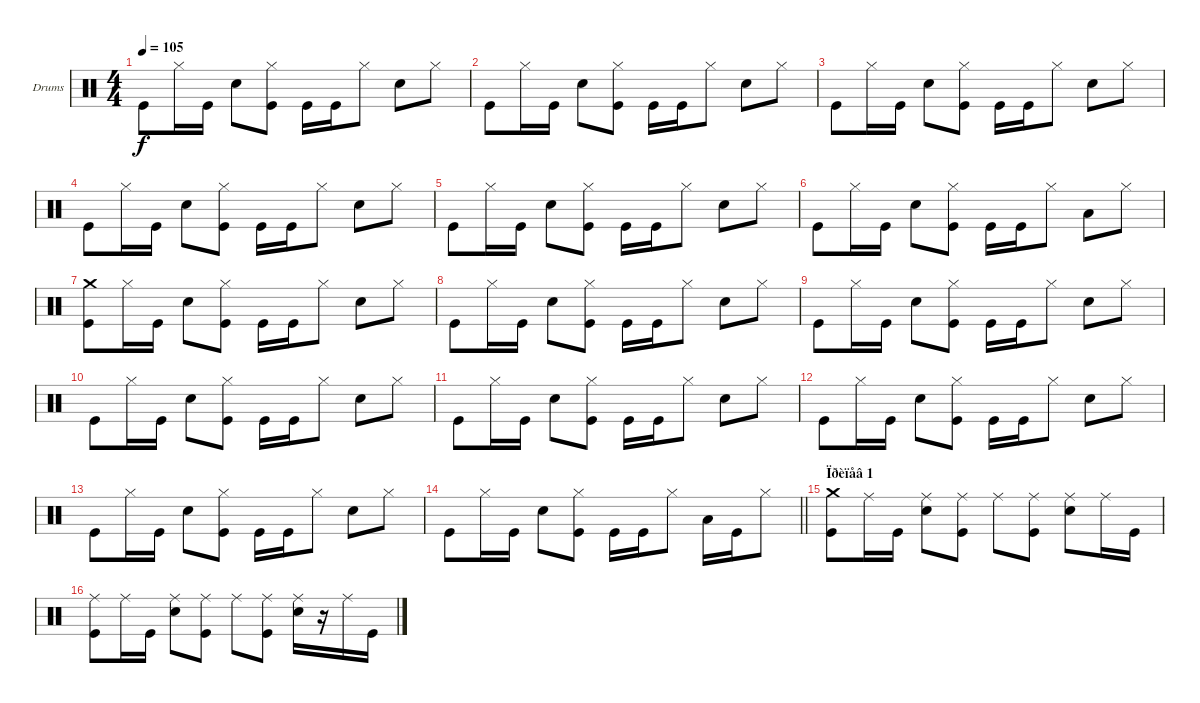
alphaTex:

\bracketExtendMode groupsimilarinstruments
\firstSystemTrackNameOrientation horizontal
\otherSystemsTrackNameOrientation horizontal
\track ("Drumkit" "Drums") {instrument percussion}
\staff {score}
\articulation defaults
\ts (4 4)
\tempo 105
\clef neutral
\ks c "Kick (hit)".8{dy f} "Hi-Hat (closed)".16 "Kick (hit)".16 "Snare (hit) 2".8
("Kick (hit)" "Hi-Hat (closed)").8 "Kick (hit)".16 "Kick (hit)".16 "Hi-Hat (closed)".8 "Snare (hit) 2".8 "Hi-Hat (closed)".8 |
"Kick (hit)".8 "Hi-Hat (closed)".16 "Kick (hit)".16 "Snare (hit) 2".8 ("Kick (hit)" "Hi-Hat (closed)").8 "Kick (hit)".16 "Kick (hit)".16 "Hi-Hat (closed)".8 "Snare (hit) 2".8 "Hi-Hat (closed)".8 |
"Kick (hit)".8 "Hi-Hat (closed)".16 "Kick (hit)".16 "Snare (hit) 2".8 ("Kick (hit)" "Hi-Hat (closed)").8 "Kick (hit)".16 "Kick (hit)".16 "Hi-Hat (closed)".8 "Snare (hit) 2".8 "Hi-Hat (closed)".8 |
"Kick (hit)".8 "Hi-Hat (closed)".16 "Kick (hit)".16 "Snare (hit) 2".8 ("Kick (hit)" "Hi-Hat (closed)").8 "Kick (hit)".16 "Kick (hit)".16 "Hi-Hat (closed)".8 "Snare (hit) 2".8 "Hi-Hat (closed)".8 |
"Kick (hit)".8 "Hi-Hat (closed)".16 "Kick (hit)".16 "Snare (hit) 2".8 ("Kick (hit)" "Hi-Hat (closed)").8 "Kick (hit)".16 "Kick (hit)".16 "Hi-Hat (closed)".8 "Snare (hit) 2".8 "Hi-Hat (closed)".8 |
"Kick (hit)".8 "Hi-Hat (closed)".16 "Kick (hit)".16 "Snare (hit) 2".8 ("Kick (hit)" "Hi-Hat (closed)").8 "Kick (hit)".16 "Kick (hit)".16 "Hi-Hat (closed)".8 "Low Tom (hit)".8 "Hi-Hat (closed)".8 |
("Kick (hit)" "Crash medium (hit)").8 "Hi-Hat (closed)".16 "Kick (hit)".16 "Snare (hit) 2".8 ("Kick (hit)" "Hi-Hat (closed)").8 "Kick (hit)".16 "Kick (hit)".16 "Hi-Hat (closed)".8 "Snare (hit) 2".8 "Hi-Hat (closed)".8 |
"Kick (hit)".8 "Hi-Hat (closed)".16 "Kick (hit)".16 "Snare (hit) 2".8 ("Kick (hit)" "Hi-Hat (closed)").8 "Kick (hit)".16 "Kick (hit)".16 "Hi-Hat (closed)".8 "Snare (hit) 2".8 "Hi-Hat (closed)".8 |
"Kick (hit)".8 "Hi-Hat (closed)".16 "Kick (hit)".16 "Snare (hit) 2".8 ("Kick (hit)" "Hi-Hat (closed)").8 "Kick (hit)".16 "Kick (hit)".16 "Hi-Hat (closed)".8 "Snare (hit) 2".8 "Hi-Hat (closed)".8 |
"Kick (hit)".8 "Hi-Hat (closed)".16 "Kick (hit)".16 "Snare (hit) 2".8 ("Kick (hit)" "Hi-Hat (closed)").8 "Kick (hit)".16 "Kick (hit)".16 "Hi-Hat (closed)".8 "Snare (hit) 2".8 "Hi-Hat (closed)".8 |
"Kick (hit)".8 "Hi-Hat (closed)".16 "Kick (hit)".16 "Snare (hit) 2".8 ("Kick (hit)" "Hi-Hat (closed)").8 "Kick (hit)".16 "Kick (hit)".16 "Hi-Hat (closed)".8 "Snare (hit) 2".8 "Hi-Hat (closed)".8 |
"Kick (hit)".8 "Hi-Hat (closed)".16 "Kick (hit)".16 "Snare (hit) 2".8 ("Kick (hit)" "Hi-Hat (closed)").8 "Kick (hit)".16 "Kick (hit)".16 "Hi-Hat (closed)".8 "Snare (hit) 2".8 "Hi-Hat (closed)".8 |
"Kick (hit)".8 "Hi-Hat (closed)".16 "Kick (hit)".16 "Snare (hit) 2".8 ("Kick (hit)" "Hi-Hat (closed)").8 "Kick (hit)".16 "Kick (hit)".16 "Hi-Hat (closed)".8 "Snare (hit) 2".8 "Hi-Hat (closed)".8 |
\barLineRight lightlight "Kick (hit)".8 "Hi-Hat (closed)".16 "Kick (hit)".16 "Snare (hit) 2".8
("Kick (hit)" "Hi-Hat (closed)").8 "Kick (hit)".16 "Kick (hit)".16 "Hi-Hat (closed)".8 "Low Tom (hit)".16 "Kick (hit)".16 "Hi-Hat (closed)".8 |
\section ("" "Ïðèïåâ 1")
("Kick (hit)" "Crash medium (hit)").8 "Ride (middle)".16 "Kick (hit)".16 ("Snare (hit) 2" "Ride (middle)").8 ("Kick (hit)" "Ride (middle)").8 "Ride (middle)".8 ("Kick (hit)" "Ride (middle)").8 ("Snare (hit) 2" "Ride (middle)").8 "Ride (middle)".16 "Kick (hit)".16 |
("Kick (hit)" "Ride (middle)").8 "Ride (middle)".16 "Kick (hit)".16 ("Snare (hit) 2" "Ride (middle)").8 ("Kick (hit)" "Ride (middle)").8 "Ride (middle)".8 ("Kick (hit)" "Ride (middle)").8 ("Snare (hit) 2" "Ride (middle)").16 r.16 "Ride (middle)".16 "Kick (hit)".16
